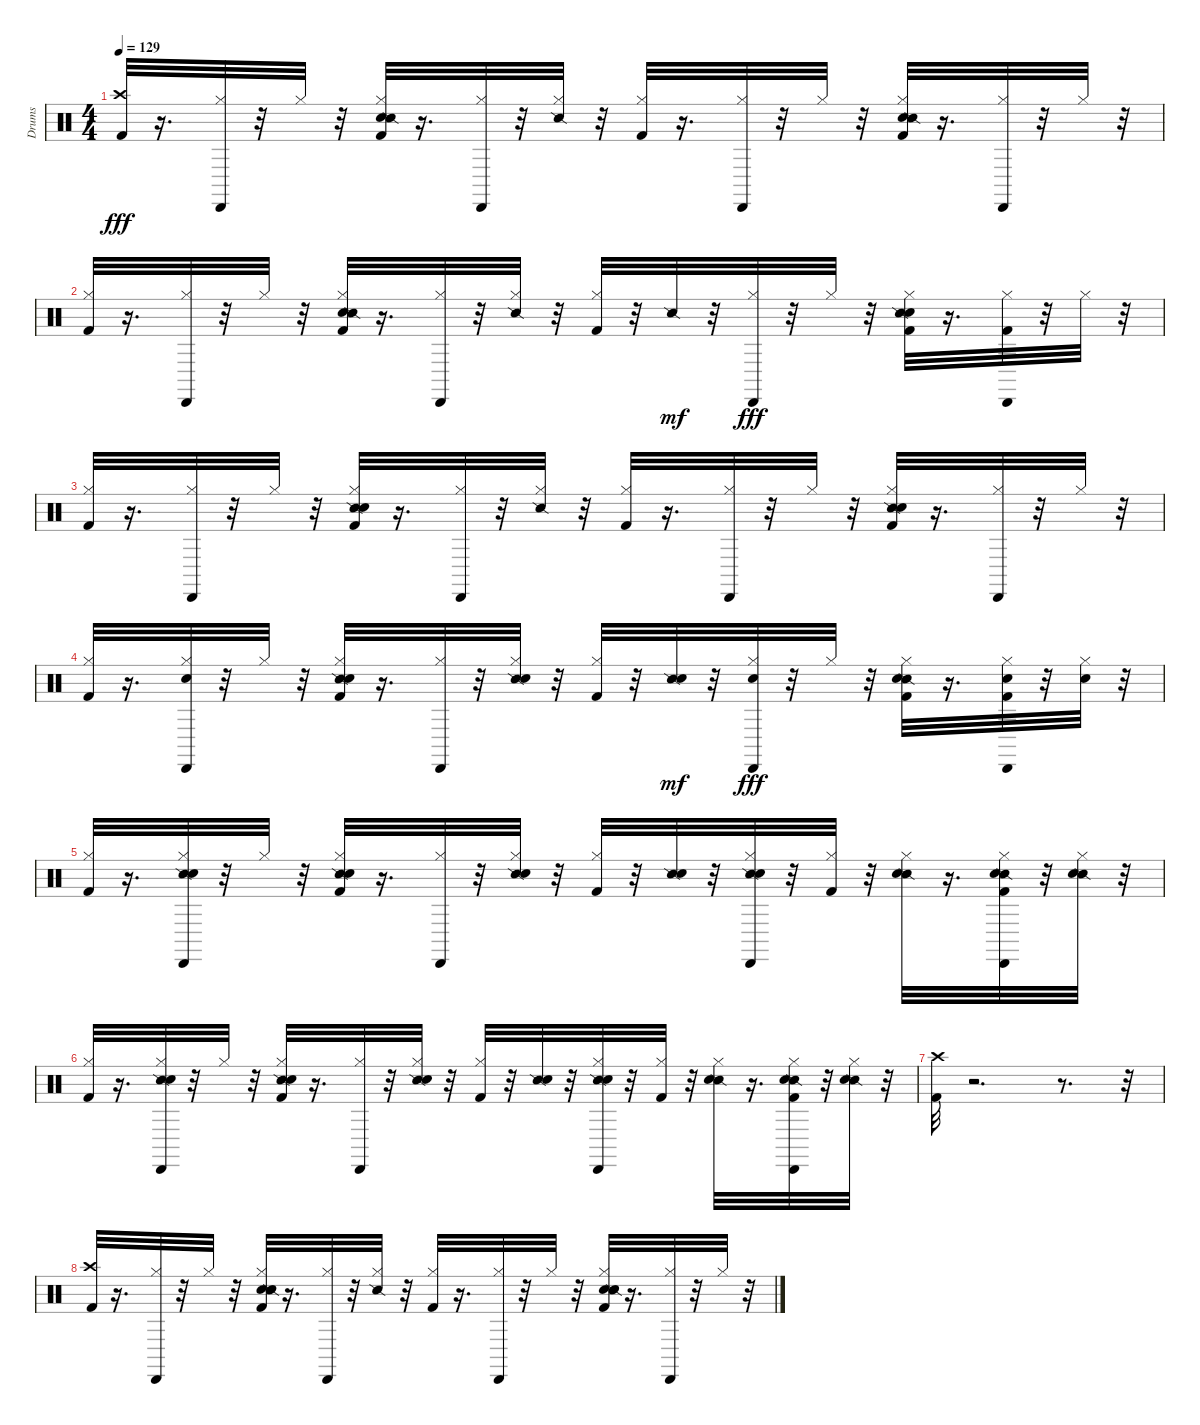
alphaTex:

\track ("Drums" "Drums") {instrument percussion}
\staff {score}
\articulation defaults
\ts (4 4)
\tempo 129
\clef neutral
\ks c
("Kick (hit) 2" "Crash high (hit)").32{dy fff} r.16{d} ("Cabasa (hit)" "Hi-Hat (closed)").32 r.32 "Hi-Hat (closed)".32 r.32 ("Hand Clap (hit)" "Snare (side stick) 2" "Hi-Hat (closed)" "Kick (hit) 2").32 r.16{d} ("Cabasa (hit)" "Hi-Hat (closed)").32 r.32 ("Snare (side stick) 2" "Hi-Hat (closed)").32 r.32 ("Kick (hit) 2" "Hi-Hat (closed)").32 r.16{d} ("Cabasa (hit)" "Hi-Hat (closed)").32 r.32 "Hi-Hat (closed)".32 r.32 ("Hand Clap (hit)" "Snare (side stick) 2" "Hi-Hat (closed)" "Kick (hit) 2").32 r.16{d} ("Cabasa (hit)" "Hi-Hat (closed)").32 r.32 "Hi-Hat (closed)".32 r.32 |
("Kick (hit) 2" "Hi-Hat (closed)").32 r.16{d} ("Cabasa (hit)" "Hi-Hat (closed)").32 r.32 "Hi-Hat (closed)".32 r.32 ("Hand Clap (hit)" "Snare (side stick) 2" "Hi-Hat (closed)" "Kick (hit) 2").32 r.16{d} ("Cabasa (hit)" "Hi-Hat (closed)").32 r.32 ("Snare (side stick) 2" "Hi-Hat (closed)").32 r.32 ("Kick (hit) 2" "Hi-Hat (closed)").32 r.32 "Snare (side stick) 2".32{dy mf} r.32 ("Cabasa (hit)" "Hi-Hat (closed)").32{dy fff} r.32 "Hi-Hat (closed)".32 r.32 ("Hand Clap (hit)" "Snare (side stick) 2" "Hi-Hat (closed)" "Kick (hit) 2").32 r.16{d} ("Kick (hit) 2" "Cabasa (hit)" "Hi-Hat (closed)").32 r.32 "Hi-Hat (closed)".32 r.32 |
("Kick (hit) 2" "Hi-Hat (closed)").32 r.16{d} ("Cabasa (hit)" "Hi-Hat (closed)").32 r.32 "Hi-Hat (closed)".32 r.32 ("Snare (side stick) 2" "Hi-Hat (closed)" "Kick (hit) 2" "Hand Clap (hit)").32 r.16{d} ("Cabasa (hit)" "Hi-Hat (closed)").32 r.32 ("Snare (side stick) 2" "Hi-Hat (closed)").32 r.32 ("Kick (hit) 2" "Hi-Hat (closed)").32 r.16{d} ("Cabasa (hit)" "Hi-Hat (closed)").32 r.32 "Hi-Hat (closed)".32 r.32 ("Snare (side stick) 2" "Hi-Hat (closed)" "Kick (hit) 2" "Hand Clap (hit)").32 r.16{d} ("Cabasa (hit)" "Hi-Hat (closed)").32 r.32 "Hi-Hat (closed)".32 r.32 |
("Kick (hit) 2" "Hi-Hat (closed)").32 r.16{d} ("Cabasa (hit)" "Hi-Hat (closed)" "Hand Clap (hit)").32 r.32 "Hi-Hat (closed)".32 r.32 ("Snare (side stick) 2" "Hi-Hat (closed)" "Kick (hit) 2" "Hand Clap (hit)").32 r.16{d} ("Cabasa (hit)" "Hi-Hat (closed)").32 r.32 ("Snare (side stick) 2" "Hi-Hat (closed)" "Hand Clap (hit)").32 r.32 ("Kick (hit) 2" "Hi-Hat (closed)").32 r.32 ("Snare (side stick) 2" "Hand Clap (hit)").32{dy mf} r.32 ("Cabasa (hit)" "Hi-Hat (closed)" "Hand Clap (hit)").32{dy fff} r.32 "Hi-Hat (closed)".32 r.32 ("Snare (side stick) 2" "Hi-Hat (closed)" "Kick (hit) 2" "Hand Clap (hit)").32 r.16{d} ("Kick (hit) 2" "Cabasa (hit)" "Hi-Hat (closed)" "Hand Clap (hit)").32 r.32 ("Hi-Hat (closed)" "Hand Clap (hit)").32 r.32 |
("Kick (hit) 2" "Hi-Hat (closed)").32 r.16{d} ("Snare (side stick) 2" "Cabasa (hit)" "Hi-Hat (closed)" "Hand Clap (hit)").32 r.32 "Hi-Hat (closed)".32 r.32 ("Snare (side stick) 2" "Hi-Hat (closed)" "Kick (hit) 2" "Hand Clap (hit)").32 r.16{d} ("Cabasa (hit)" "Hi-Hat (closed)").32 r.32 ("Snare (side stick) 2" "Hi-Hat (closed)" "Hand Clap (hit)").32 r.32 ("Kick (hit) 2" "Hi-Hat (closed)").32 r.32 ("Snare (side stick) 2" "Hand Clap (hit)").32 r.32 ("Snare (side stick) 2" "Cabasa (hit)" "Hi-Hat (closed)" "Hand Clap (hit)").32 r.32 ("Hi-Hat (closed)" "Kick (hit) 2").32 r.32 ("Snare (side stick) 2" "Hi-Hat (closed)" "Hand Clap (hit)").32 r.16{d} ("Snare (side stick) 2" "Kick (hit) 2" "Cabasa (hit)" "Hi-Hat (closed)" "Hand Clap (hit)").32 r.32 ("Snare (side stick) 2" "Hi-Hat (closed)" "Hand Clap (hit)").32 r.32 |
("Kick (hit) 2" "Hi-Hat (closed)").32 r.16{d} ("Snare (side stick) 2" "Cabasa (hit)" "Hi-Hat (closed)" "Hand Clap (hit)").32 r.32 "Hi-Hat (closed)".32 r.32 ("Snare (side stick) 2" "Hi-Hat (closed)" "Kick (hit) 2" "Hand Clap (hit)").32 r.16{d} ("Cabasa (hit)" "Hi-Hat (closed)").32 r.32 ("Snare (side stick) 2" "Hi-Hat (closed)" "Hand Clap (hit)").32 r.32 ("Kick (hit) 2" "Hi-Hat (closed)").32 r.32 ("Snare (side stick) 2" "Hand Clap (hit)").32 r.32 ("Snare (side stick) 2" "Cabasa (hit)" "Hi-Hat (closed)" "Hand Clap (hit)").32 r.32 ("Hi-Hat (closed)" "Kick (hit) 2").32 r.32 ("Snare (side stick) 2" "Hi-Hat (closed)" "Hand Clap (hit)").32 r.16{d} ("Snare (side stick) 2" "Kick (hit) 2" "Cabasa (hit)" "Hi-Hat (closed)" "Hand Clap (hit)").32 r.32 ("Snare (side stick) 2" "Hi-Hat (closed)" "Hand Clap (hit)").32 r.32 |
("Kick (hit) 2" "Crash high (hit)").32 r.2{d} r.8{d} r.32 |
("Kick (hit) 2" "Crash high (hit)").32 r.16{d} ("Cabasa (hit)" "Hi-Hat (closed)").32 r.32 "Hi-Hat (closed)".32 r.32 ("Snare (hit)" "Hand Clap (hit)" "Snare (side stick) 2" "Hi-Hat (closed)" "Kick (hit) 2").32 r.16{d} ("Cabasa (hit)" "Hi-Hat (closed)").32 r.32 ("Snare (side stick) 2" "Hi-Hat (closed)").32 r.32 ("Kick (hit) 2" "Hi-Hat (closed)").32 r.16{d} ("Cabasa (hit)" "Hi-Hat (closed)").32 r.32 "Hi-Hat (closed)".32 r.32 ("Snare (hit)" "Hand Clap (hit)" "Snare (side stick) 2" "Hi-Hat (closed)" "Kick (hit) 2").32 r.16{d} ("Cabasa (hit)" "Hi-Hat (closed)").32 r.32 "Hi-Hat (closed)".32 r.32
